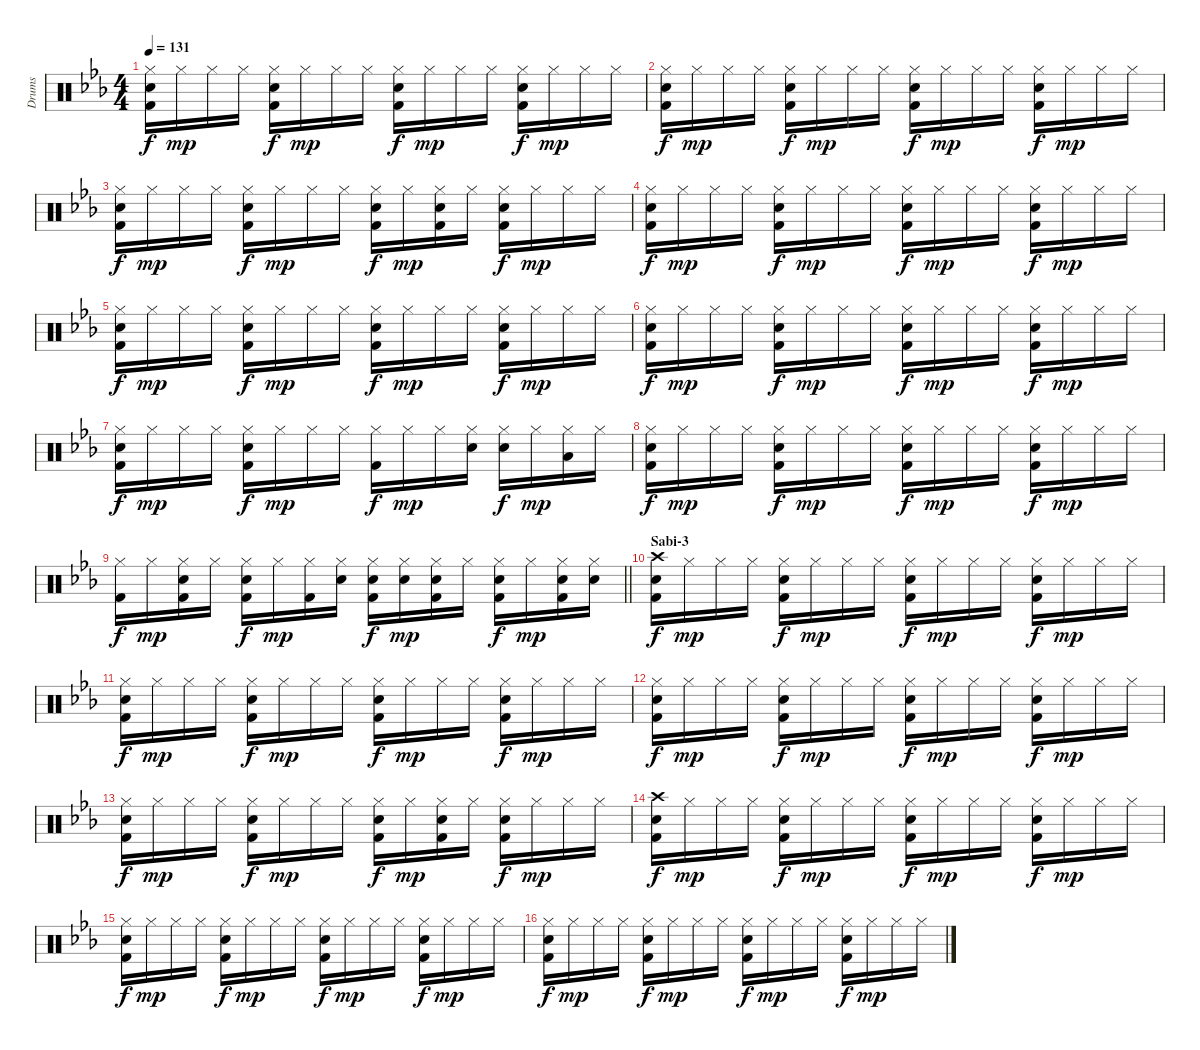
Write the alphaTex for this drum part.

\track ("Drums" "Drums") {instrument percussion}
\staff {score}
\articulation defaults
\ts (4 4)
\tempo 131
\clef neutral
\ks eb
("Hi-Hat (closed)" "Snare (hit) 2" "Kick (hit) 2").16{dy f} "Hi-Hat (closed)".16{dy mp} "Hi-Hat (closed)".16 "Hi-Hat (closed)".16 ("Hi-Hat (closed)" "Snare (hit) 2" "Kick (hit) 2").16{dy f} "Hi-Hat (closed)".16{dy mp} "Hi-Hat (closed)".16 "Hi-Hat (closed)".16 ("Hi-Hat (closed)" "Snare (hit) 2" "Kick (hit) 2").16{dy f} "Hi-Hat (closed)".16{dy mp} "Hi-Hat (closed)".16 "Hi-Hat (closed)".16 ("Hi-Hat (closed)" "Snare (hit) 2" "Kick (hit) 2").16{dy f} "Hi-Hat (closed)".16{dy mp} "Hi-Hat (closed)".16 "Hi-Hat (closed)".16 |
("Hi-Hat (closed)" "Snare (hit) 2" "Kick (hit) 2").16{dy f} "Hi-Hat (closed)".16{dy mp} "Hi-Hat (closed)".16 "Hi-Hat (closed)".16 ("Hi-Hat (closed)" "Snare (hit) 2" "Kick (hit) 2").16{dy f} "Hi-Hat (closed)".16{dy mp} "Hi-Hat (closed)".16 "Hi-Hat (closed)".16 ("Hi-Hat (closed)" "Snare (hit) 2" "Kick (hit) 2").16{dy f} "Hi-Hat (closed)".16{dy mp} "Hi-Hat (closed)".16 "Hi-Hat (closed)".16 ("Hi-Hat (closed)" "Snare (hit) 2" "Kick (hit) 2").16{dy f} "Hi-Hat (closed)".16{dy mp} "Hi-Hat (closed)".16 "Hi-Hat (closed)".16 |
("Hi-Hat (closed)" "Snare (hit) 2" "Kick (hit) 2").16{dy f} "Hi-Hat (closed)".16{dy mp} "Hi-Hat (closed)".16 "Hi-Hat (closed)".16 ("Hi-Hat (closed)" "Snare (hit) 2" "Kick (hit) 2").16{dy f} "Hi-Hat (closed)".16{dy mp} "Hi-Hat (closed)".16 "Hi-Hat (closed)".16 ("Hi-Hat (closed)" "Snare (hit) 2" "Kick (hit) 2").16{dy f} "Hi-Hat (closed)".16{dy mp} ("Hi-Hat (closed)" "Snare (hit) 2" "Kick (hit) 2").16 "Hi-Hat (closed)".16 ("Hi-Hat (closed)" "Snare (hit) 2" "Kick (hit) 2").16{dy f} "Hi-Hat (closed)".16{dy mp} "Hi-Hat (closed)".16 "Hi-Hat (closed)".16 |
("Hi-Hat (closed)" "Snare (hit) 2" "Kick (hit) 2").16{dy f} "Hi-Hat (closed)".16{dy mp} "Hi-Hat (closed)".16 "Hi-Hat (closed)".16 ("Hi-Hat (closed)" "Snare (hit) 2" "Kick (hit) 2").16{dy f} "Hi-Hat (closed)".16{dy mp} "Hi-Hat (closed)".16 "Hi-Hat (closed)".16 ("Hi-Hat (closed)" "Snare (hit) 2" "Kick (hit) 2").16{dy f} "Hi-Hat (closed)".16{dy mp} "Hi-Hat (closed)".16 "Hi-Hat (closed)".16 ("Hi-Hat (closed)" "Snare (hit) 2" "Kick (hit) 2").16{dy f} "Hi-Hat (closed)".16{dy mp} "Hi-Hat (closed)".16 "Hi-Hat (closed)".16 |
("Hi-Hat (closed)" "Snare (hit) 2" "Kick (hit) 2").16{dy f} "Hi-Hat (closed)".16{dy mp} "Hi-Hat (closed)".16 "Hi-Hat (closed)".16 ("Hi-Hat (closed)" "Snare (hit) 2" "Kick (hit) 2").16{dy f} "Hi-Hat (closed)".16{dy mp} "Hi-Hat (closed)".16 "Hi-Hat (closed)".16 ("Hi-Hat (closed)" "Snare (hit) 2" "Kick (hit) 2").16{dy f} "Hi-Hat (closed)".16{dy mp} "Hi-Hat (closed)".16 "Hi-Hat (closed)".16 ("Hi-Hat (closed)" "Snare (hit) 2" "Kick (hit) 2").16{dy f} "Hi-Hat (closed)".16{dy mp} "Hi-Hat (closed)".16 "Hi-Hat (closed)".16 |
("Hi-Hat (closed)" "Snare (hit) 2" "Kick (hit) 2").16{dy f} "Hi-Hat (closed)".16{dy mp} "Hi-Hat (closed)".16 "Hi-Hat (closed)".16 ("Hi-Hat (closed)" "Snare (hit) 2" "Kick (hit) 2").16{dy f} "Hi-Hat (closed)".16{dy mp} "Hi-Hat (closed)".16 "Hi-Hat (closed)".16 ("Hi-Hat (closed)" "Snare (hit) 2" "Kick (hit) 2").16{dy f} "Hi-Hat (closed)".16{dy mp} "Hi-Hat (closed)".16 "Hi-Hat (closed)".16 ("Hi-Hat (closed)" "Snare (hit) 2" "Kick (hit) 2").16{dy f} "Hi-Hat (closed)".16{dy mp} "Hi-Hat (closed)".16 "Hi-Hat (closed)".16 |
("Hi-Hat (closed)" "Snare (hit) 2" "Kick (hit) 2").16{dy f} "Hi-Hat (closed)".16{dy mp} "Hi-Hat (closed)".16 "Hi-Hat (closed)".16 ("Hi-Hat (closed)" "Snare (hit) 2" "Kick (hit) 2").16{dy f} "Hi-Hat (closed)".16{dy mp} "Hi-Hat (closed)".16 "Hi-Hat (closed)".16 ("Hi-Hat (closed)" "Kick (hit) 2").16{dy f} "Hi-Hat (closed)".16{dy mp} "Hi-Hat (closed)".16 ("Hi-Hat (closed)" "Snare (hit) 2").16 ("Hi-Hat (closed)" "Snare (hit) 2").16{dy f} "Hi-Hat (closed)".16{dy mp} ("Hi-Hat (closed)" "Low Tom (hit)").16 "Hi-Hat (closed)".16 |
("Hi-Hat (closed)" "Snare (hit) 2" "Kick (hit) 2").16{dy f} "Hi-Hat (closed)".16{dy mp} "Hi-Hat (closed)".16 "Hi-Hat (closed)".16 ("Hi-Hat (closed)" "Snare (hit) 2" "Kick (hit) 2").16{dy f} "Hi-Hat (closed)".16{dy mp} "Hi-Hat (closed)".16 "Hi-Hat (closed)".16 ("Hi-Hat (closed)" "Snare (hit) 2" "Kick (hit) 2").16{dy f} "Hi-Hat (closed)".16{dy mp} "Hi-Hat (closed)".16 "Hi-Hat (closed)".16 ("Hi-Hat (closed)" "Snare (hit) 2" "Kick (hit) 2").16{dy f} "Hi-Hat (closed)".16{dy mp} "Hi-Hat (closed)".16 "Hi-Hat (closed)".16 |
\barLineRight lightlight
("Hi-Hat (closed)" "Kick (hit) 2").16{dy f} "Hi-Hat (closed)".16{dy mp} ("Hi-Hat (closed)" "Snare (hit) 2" "Kick (hit) 2").16 "Hi-Hat (closed)".16 ("Hi-Hat (closed)" "Snare (hit) 2" "Kick (hit) 2").16{dy f} "Hi-Hat (closed)".16{dy mp} ("Hi-Hat (closed)" "Kick (hit) 2").16 ("Hi-Hat (closed)" "Snare (hit) 2").16 ("Hi-Hat (closed)" "Snare (hit) 2" "Kick (hit) 2").16{dy f} ("Hi-Hat (closed)" "Snare (hit) 2").16{dy mp} ("Hi-Hat (closed)" "Snare (hit) 2" "Kick (hit) 2").16 "Hi-Hat (closed)".16 ("Hi-Hat (closed)" "Snare (hit) 2" "Kick (hit) 2").16{dy f} "Hi-Hat (closed)".16{dy mp} ("Hi-Hat (closed)" "Snare (hit) 2" "Kick (hit) 2").16 ("Hi-Hat (closed)" "Snare (hit) 2").16 |
\section ("" "Sabi-3")
("Crash high (hit)" "Snare (hit) 2" "Kick (hit) 2").16{dy f} "Hi-Hat (closed)".16{dy mp} "Hi-Hat (closed)".16 "Hi-Hat (closed)".16 ("Hi-Hat (closed)" "Snare (hit) 2" "Kick (hit) 2").16{dy f} "Hi-Hat (closed)".16{dy mp} "Hi-Hat (closed)".16 "Hi-Hat (closed)".16 ("Hi-Hat (closed)" "Snare (hit) 2" "Kick (hit) 2").16{dy f} "Hi-Hat (closed)".16{dy mp} "Hi-Hat (closed)".16 "Hi-Hat (closed)".16 ("Hi-Hat (closed)" "Snare (hit) 2" "Kick (hit) 2").16{dy f} "Hi-Hat (closed)".16{dy mp} "Hi-Hat (closed)".16 "Hi-Hat (closed)".16 |
("Hi-Hat (closed)" "Snare (hit) 2" "Kick (hit) 2").16{dy f} "Hi-Hat (closed)".16{dy mp} "Hi-Hat (closed)".16 "Hi-Hat (closed)".16 ("Hi-Hat (closed)" "Snare (hit) 2" "Kick (hit) 2").16{dy f} "Hi-Hat (closed)".16{dy mp} "Hi-Hat (closed)".16 "Hi-Hat (closed)".16 ("Hi-Hat (closed)" "Snare (hit) 2" "Kick (hit) 2").16{dy f} "Hi-Hat (closed)".16{dy mp} "Hi-Hat (closed)".16 "Hi-Hat (closed)".16 ("Hi-Hat (closed)" "Snare (hit) 2" "Kick (hit) 2").16{dy f} "Hi-Hat (closed)".16{dy mp} "Hi-Hat (closed)".16 "Hi-Hat (closed)".16 |
("Hi-Hat (closed)" "Snare (hit) 2" "Kick (hit) 2").16{dy f} "Hi-Hat (closed)".16{dy mp} "Hi-Hat (closed)".16 "Hi-Hat (closed)".16 ("Hi-Hat (closed)" "Snare (hit) 2" "Kick (hit) 2").16{dy f} "Hi-Hat (closed)".16{dy mp} "Hi-Hat (closed)".16 "Hi-Hat (closed)".16 ("Hi-Hat (closed)" "Snare (hit) 2" "Kick (hit) 2").16{dy f} "Hi-Hat (closed)".16{dy mp} "Hi-Hat (closed)".16 "Hi-Hat (closed)".16 ("Hi-Hat (closed)" "Snare (hit) 2" "Kick (hit) 2").16{dy f} "Hi-Hat (closed)".16{dy mp} "Hi-Hat (closed)".16 "Hi-Hat (closed)".16 |
("Hi-Hat (closed)" "Snare (hit) 2" "Kick (hit) 2").16{dy f} "Hi-Hat (closed)".16{dy mp} "Hi-Hat (closed)".16 "Hi-Hat (closed)".16 ("Hi-Hat (closed)" "Snare (hit) 2" "Kick (hit) 2").16{dy f} "Hi-Hat (closed)".16{dy mp} "Hi-Hat (closed)".16 "Hi-Hat (closed)".16 ("Hi-Hat (closed)" "Snare (hit) 2" "Kick (hit) 2").16{dy f} "Hi-Hat (closed)".16{dy mp} ("Hi-Hat (closed)" "Snare (hit) 2" "Kick (hit) 2").16 "Hi-Hat (closed)".16 ("Hi-Hat (closed)" "Snare (hit) 2" "Kick (hit) 2").16{dy f} "Hi-Hat (closed)".16{dy mp} "Hi-Hat (closed)".16 "Hi-Hat (closed)".16 |
("Crash high (hit)" "Snare (hit) 2" "Kick (hit) 2").16{dy f} "Hi-Hat (closed)".16{dy mp} "Hi-Hat (closed)".16 "Hi-Hat (closed)".16 ("Hi-Hat (closed)" "Snare (hit) 2" "Kick (hit) 2").16{dy f} "Hi-Hat (closed)".16{dy mp} "Hi-Hat (closed)".16 "Hi-Hat (closed)".16 ("Hi-Hat (closed)" "Snare (hit) 2" "Kick (hit) 2").16{dy f} "Hi-Hat (closed)".16{dy mp} "Hi-Hat (closed)".16 "Hi-Hat (closed)".16 ("Hi-Hat (closed)" "Snare (hit) 2" "Kick (hit) 2").16{dy f} "Hi-Hat (closed)".16{dy mp} "Hi-Hat (closed)".16 "Hi-Hat (closed)".16 |
("Hi-Hat (closed)" "Snare (hit) 2" "Kick (hit) 2").16{dy f} "Hi-Hat (closed)".16{dy mp} "Hi-Hat (closed)".16 "Hi-Hat (closed)".16 ("Hi-Hat (closed)" "Snare (hit) 2" "Kick (hit) 2").16{dy f} "Hi-Hat (closed)".16{dy mp} "Hi-Hat (closed)".16 "Hi-Hat (closed)".16 ("Hi-Hat (closed)" "Snare (hit) 2" "Kick (hit) 2").16{dy f} "Hi-Hat (closed)".16{dy mp} "Hi-Hat (closed)".16 "Hi-Hat (closed)".16 ("Hi-Hat (closed)" "Snare (hit) 2" "Kick (hit) 2").16{dy f} "Hi-Hat (closed)".16{dy mp} "Hi-Hat (closed)".16 "Hi-Hat (closed)".16 |
("Hi-Hat (closed)" "Snare (hit) 2" "Kick (hit) 2").16{dy f} "Hi-Hat (closed)".16{dy mp} "Hi-Hat (closed)".16 "Hi-Hat (closed)".16 ("Hi-Hat (closed)" "Snare (hit) 2" "Kick (hit) 2").16{dy f} "Hi-Hat (closed)".16{dy mp} "Hi-Hat (closed)".16 "Hi-Hat (closed)".16 ("Hi-Hat (closed)" "Snare (hit) 2" "Kick (hit) 2").16{dy f} "Hi-Hat (closed)".16{dy mp} "Hi-Hat (closed)".16 "Hi-Hat (closed)".16 ("Hi-Hat (closed)" "Snare (hit) 2" "Kick (hit) 2").16{dy f} "Hi-Hat (closed)".16{dy mp} "Hi-Hat (closed)".16 "Hi-Hat (closed)".16
